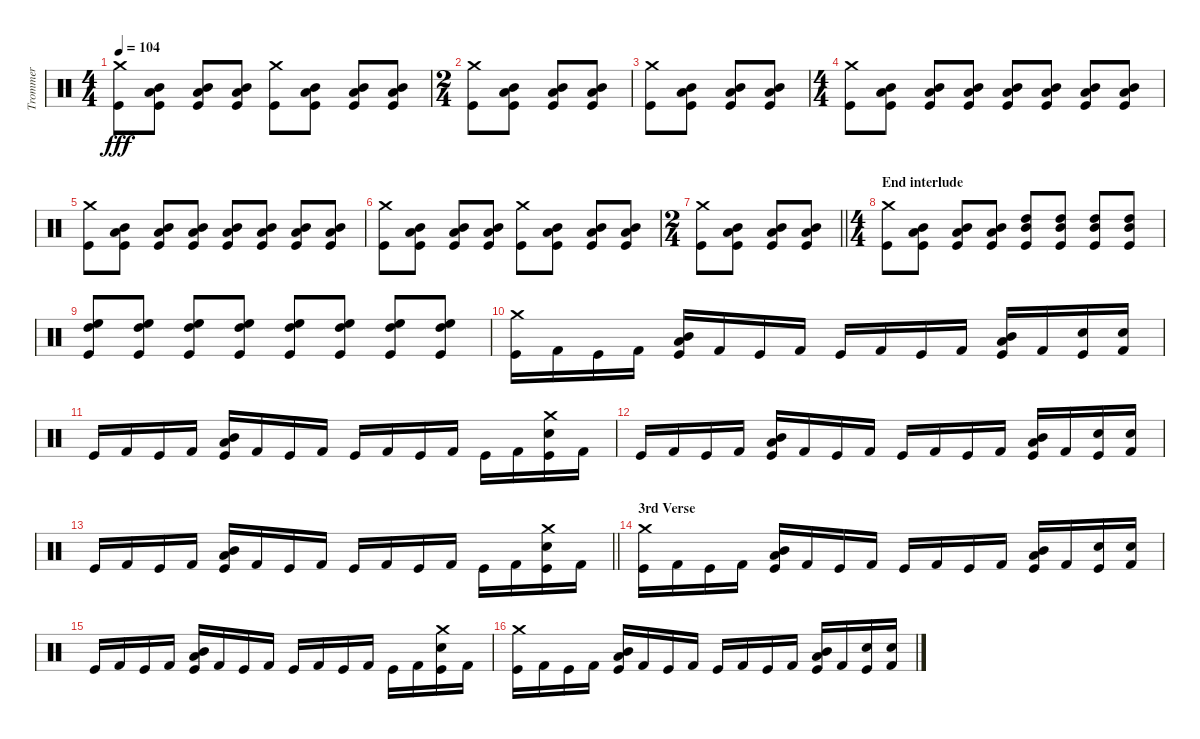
\track ("Trommer" "Trommer") {instrument percussion}
\staff {score}
\articulation defaults
\ts (4 4)
\tempo 104
\clef neutral
\ks c
("Crash medium (hit)" "Kick (hit)").8{dy fff} ("Mid Tom (hit)" "Low Tom (hit)" "Kick (hit)").8 ("Mid Tom (hit)" "Low Tom (hit)" "Kick (hit)").8 ("Low Tom (hit)" "Mid Tom (hit)" "Kick (hit)").8 ("Crash medium (hit)" "Kick (hit)").8 ("Kick (hit)" "Low Tom (hit)" "Mid Tom (hit)").8 ("Kick (hit)" "Low Tom (hit)" "Mid Tom (hit)").8 ("Kick (hit)" "Low Tom (hit)" "Mid Tom (hit)").8 |
\ts (2 4)
("Crash medium (hit)" "Kick (hit)").8 ("Low Tom (hit)" "Mid Tom (hit)" "Kick (hit)").8 ("Low Tom (hit)" "Mid Tom (hit)" "Kick (hit)").8 ("Low Tom (hit)" "Mid Tom (hit)" "Kick (hit)").8 |
("Crash medium (hit)" "Kick (hit)").8 ("Mid Tom (hit)" "Low Tom (hit)" "Kick (hit)").8 ("Kick (hit)" "Mid Tom (hit)" "Low Tom (hit)").8 ("Kick (hit)" "Mid Tom (hit)" "Low Tom (hit)").8 |
\ts (4 4)
("Kick (hit)" "Crash medium (hit)").8 ("Low Tom (hit)" "Kick (hit)" "Mid Tom (hit)").8 ("Low Tom (hit)" "Kick (hit)" "Mid Tom (hit)").8 ("Kick (hit)" "Mid Tom (hit)" "Low Tom (hit)").8 ("Kick (hit)" "Mid Tom (hit)" "Low Tom (hit)").8 ("Kick (hit)" "Mid Tom (hit)" "Low Tom (hit)").8 ("Mid Tom (hit)" "Kick (hit)" "Low Tom (hit)").8 ("Kick (hit)" "Mid Tom (hit)" "Low Tom (hit)").8 |
("Kick (hit)" "Crash medium (hit)").8 ("Low Tom (hit)" "Kick (hit)" "Mid Tom (hit)").8 ("Low Tom (hit)" "Kick (hit)" "Mid Tom (hit)").8 ("Low Tom (hit)" "Kick (hit)" "Mid Tom (hit)").8 ("Kick (hit)" "Mid Tom (hit)" "Low Tom (hit)").8 ("Kick (hit)" "Mid Tom (hit)" "Low Tom (hit)").8 ("Kick (hit)" "Low Tom (hit)" "Mid Tom (hit)").8 ("Mid Tom (hit)" "Low Tom (hit)" "Kick (hit)").8 |
("Crash medium (hit)" "Kick (hit)").8 ("Mid Tom (hit)" "Low Tom (hit)" "Kick (hit)").8 ("Mid Tom (hit)" "Low Tom (hit)" "Kick (hit)").8 ("Mid Tom (hit)" "Low Tom (hit)" "Kick (hit)").8 ("Kick (hit)" "Crash medium (hit)").8 ("Kick (hit)" "Low Tom (hit)" "Mid Tom (hit)").8 ("Low Tom (hit)" "Mid Tom (hit)" "Kick (hit)").8 ("Low Tom (hit)" "Mid Tom (hit)" "Kick (hit)").8 |
\ts (2 4)
\barLineRight lightlight
("Crash medium (hit)" "Kick (hit)").8 ("Kick (hit)" "Low Tom (hit)" "Mid Tom (hit)").8 ("Kick (hit)" "Low Tom (hit)" "Mid Tom (hit)").8 ("Kick (hit)" "Low Tom (hit)" "Mid Tom (hit)").8 |
\ts (4 4)
\section ("" "End interlude")
("Kick (hit)" "Crash medium (hit)").8 ("Kick (hit)" "Low Tom (hit)" "Mid Tom (hit)").8 ("Low Tom (hit)" "Kick (hit)" "Mid Tom (hit)").8 ("Kick (hit)" "Low Tom (hit)" "Mid Tom (hit)").8 ("High Tom (hit)" "Mid Tom (hit)" "Kick (hit)").8 ("High Tom (hit)" "Mid Tom (hit)" "Kick (hit)").8 ("Mid Tom (hit)" "High Tom (hit)" "Kick (hit)").8 ("Kick (hit)" "High Tom (hit)" "Mid Tom (hit)").8 |
("Kick (hit)" "High Floor Tom (hit)" "High Tom (hit)").8 ("Kick (hit)" "High Tom (hit)" "High Floor Tom (hit)").8 ("Kick (hit)" "High Tom (hit)" "High Floor Tom (hit)").8 ("High Tom (hit)" "Kick (hit)" "High Floor Tom (hit)").8 ("Kick (hit)" "High Tom (hit)" "High Floor Tom (hit)").8 ("Kick (hit)" "High Tom (hit)" "High Floor Tom (hit)").8 ("Kick (hit)" "High Tom (hit)" "High Floor Tom (hit)").8 ("High Floor Tom (hit)" "Kick (hit)" "High Tom (hit)").8 |
("Kick (hit)" "Crash medium (hit)").16 "Kick (hit) 2".16 "Kick (hit)".16 "Kick (hit) 2".16 ("Kick (hit)" "Low Tom (hit)" "Mid Tom (hit)").16 "Kick (hit) 2".16 "Kick (hit)".16 "Kick (hit) 2".16 "Kick (hit)".16 "Kick (hit) 2".16 "Kick (hit)".16 "Kick (hit) 2".16 ("Kick (hit)" "Low Tom (hit)" "Mid Tom (hit)").16 "Kick (hit) 2".16 ("Kick (hit)" "Snare (hit) 2").16 ("Kick (hit) 2" "Snare (hit) 2").16 |
"Kick (hit)".16 "Kick (hit) 2".16 "Kick (hit)".16 "Kick (hit) 2".16 ("Low Tom (hit)" "Kick (hit)" "Mid Tom (hit)").16 "Kick (hit) 2".16 "Kick (hit)".16 "Kick (hit) 2".16 "Kick (hit)".16 "Kick (hit) 2".16 "Kick (hit)".16 "Kick (hit) 2".16 "Kick (hit)".16 "Kick (hit) 2".16 ("Crash medium (hit)" "Snare (hit) 2" "Kick (hit)").16 "Kick (hit) 2".16 |
"Kick (hit)".16 "Kick (hit) 2".16 "Kick (hit)".16 "Kick (hit) 2".16 ("Kick (hit)" "Low Tom (hit)" "Mid Tom (hit)").16 "Kick (hit) 2".16 "Kick (hit)".16 "Kick (hit) 2".16 "Kick (hit)".16 "Kick (hit) 2".16 "Kick (hit)".16 "Kick (hit) 2".16 ("Kick (hit)" "Low Tom (hit)" "Mid Tom (hit)").16 "Kick (hit) 2".16 ("Kick (hit)" "Snare (hit) 2").16 ("Snare (hit) 2" "Kick (hit) 2").16 |
\barLineRight lightlight "Kick (hit)".16 "Kick (hit) 2".16 "Kick (hit)".16 "Kick (hit) 2".16
("Low Tom (hit)" "Kick (hit)" "Mid Tom (hit)").16 "Kick (hit) 2".16 "Kick (hit)".16 "Kick (hit) 2".16 "Kick (hit)".16 "Kick (hit) 2".16 "Kick (hit)".16 "Kick (hit) 2".16 "Kick (hit)".16 "Kick (hit) 2".16 ("Snare (hit) 2" "Kick (hit)" "Crash medium (hit)").16 "Kick (hit) 2".16 |
\section ("" "3rd Verse")
("Kick (hit)" "Crash medium (hit)").16 "Kick (hit) 2".16 "Kick (hit)".16 "Kick (hit) 2".16 ("Mid Tom (hit)" "Kick (hit)" "Low Tom (hit)").16 "Kick (hit) 2".16 "Kick (hit)".16 "Kick (hit) 2".16 "Kick (hit)".16 "Kick (hit) 2".16 "Kick (hit)".16 "Kick (hit) 2".16 ("Kick (hit)" "Low Tom (hit)" "Mid Tom (hit)").16 "Kick (hit) 2".16 ("Snare (hit) 2" "Kick (hit)").16 ("Kick (hit) 2" "Snare (hit) 2").16 |
"Kick (hit)".16 "Kick (hit) 2".16 "Kick (hit)".16 "Kick (hit) 2".16 ("Low Tom (hit)" "Kick (hit)" "Mid Tom (hit)").16 "Kick (hit) 2".16 "Kick (hit)".16 "Kick (hit) 2".16 "Kick (hit)".16 "Kick (hit) 2".16 "Kick (hit)".16 "Kick (hit) 2".16 "Kick (hit)".16 "Kick (hit) 2".16 ("Snare (hit) 2" "Kick (hit)" "Crash medium (hit)").16 "Kick (hit) 2".16 |
("Crash medium (hit)" "Kick (hit)").16 "Kick (hit) 2".16 "Kick (hit)".16 "Kick (hit) 2".16 ("Mid Tom (hit)" "Kick (hit)" "Low Tom (hit)").16 "Kick (hit) 2".16 "Kick (hit)".16 "Kick (hit) 2".16 "Kick (hit)".16 "Kick (hit) 2".16 "Kick (hit)".16 "Kick (hit) 2".16 ("Mid Tom (hit)" "Kick (hit)" "Low Tom (hit)").16 "Kick (hit) 2".16 ("Kick (hit)" "Snare (hit) 2").16 ("Kick (hit) 2" "Snare (hit) 2").16
